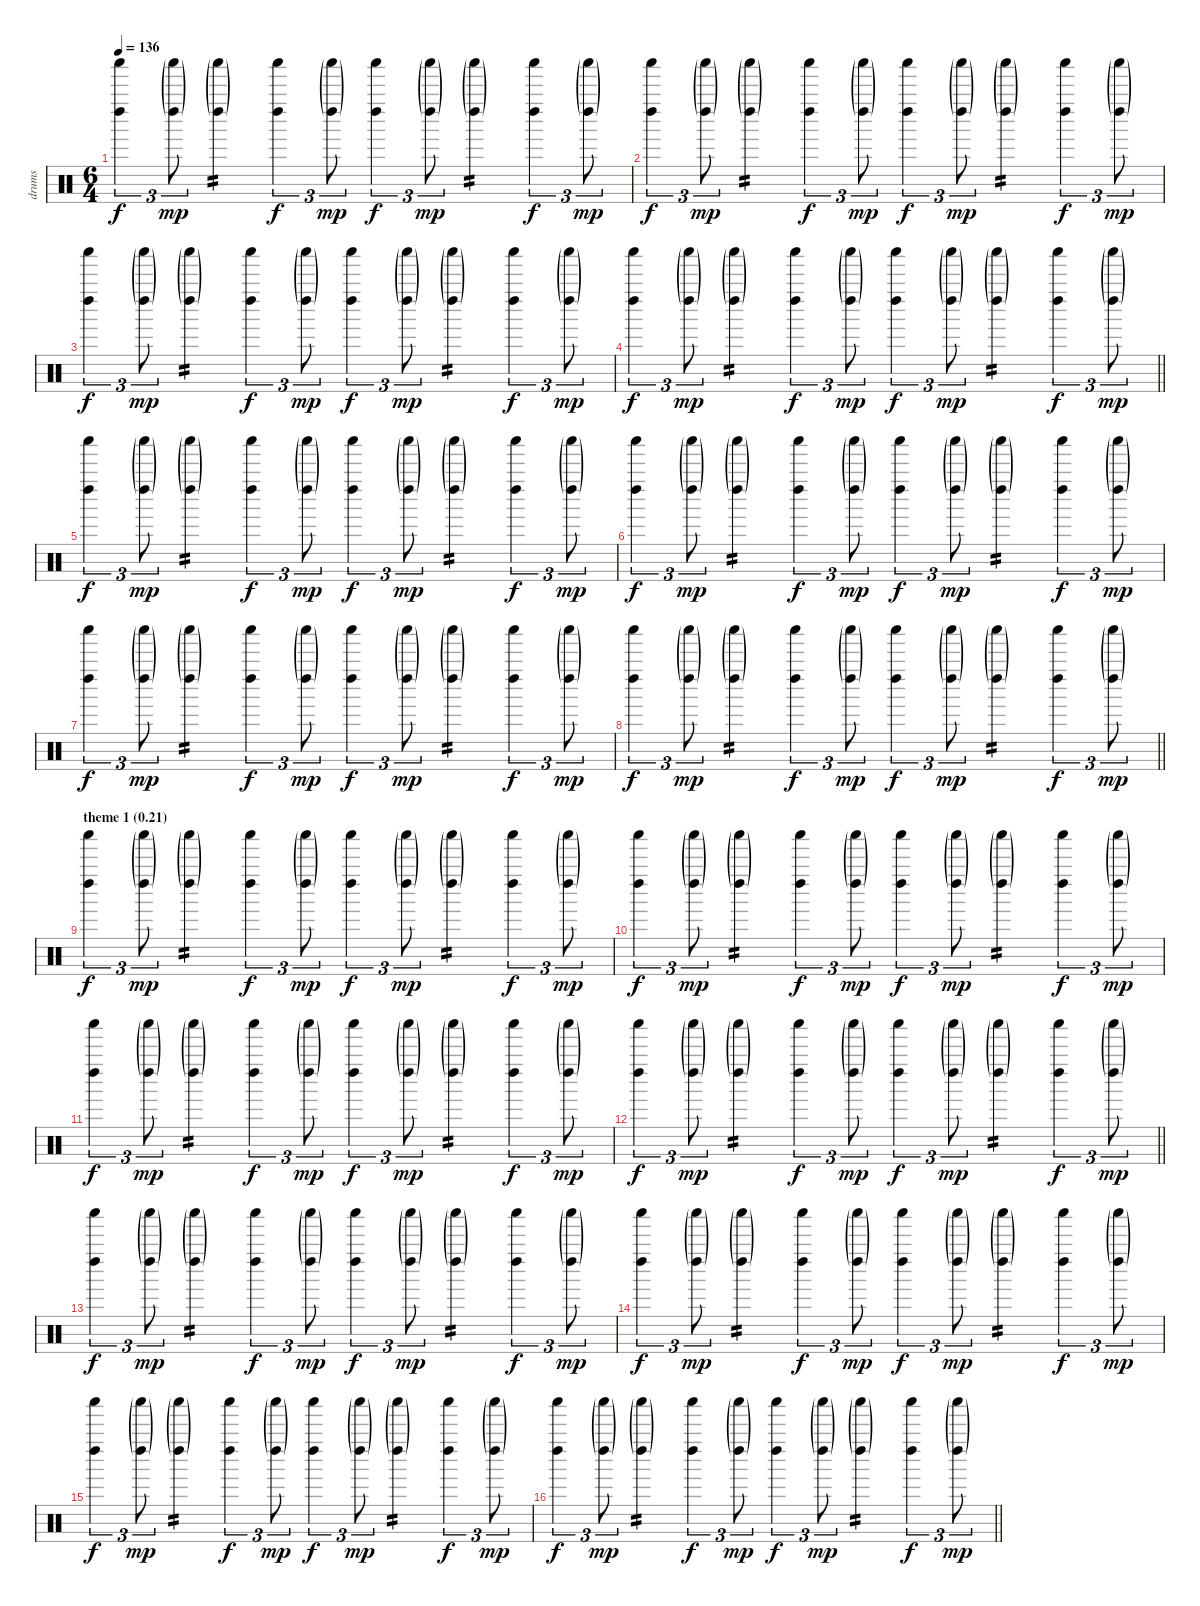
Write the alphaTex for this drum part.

\track ("drums" "drums") {instrument percussion}
\staff {score}
\articulation defaults
\ts (6 4)
\tempo 136
\clef neutral
\ks c
("Left Maraca (hit)" "Shaker (hit)").4{tu (3 2) dy f} ("Left Maraca (hit)"{g} "Shaker (hit)"{g}).8{tu (3 2) dy mp} ("Left Maraca (hit)"{g} "Shaker (hit)"{g}).4{tp 2} ("Left Maraca (hit)" "Shaker (hit)").4{tu (3 2) dy f} ("Left Maraca (hit)"{g} "Shaker (hit)"{g}).8{tu (3 2) dy mp} ("Left Maraca (hit)" "Shaker (hit)").4{tu (3 2) dy f} ("Left Maraca (hit)"{g} "Shaker (hit)"{g}).8{tu (3 2) dy mp} ("Left Maraca (hit)"{g} "Shaker (hit)"{g}).4{tp 2} ("Left Maraca (hit)" "Shaker (hit)").4{tu (3 2) dy f} ("Left Maraca (hit)"{g} "Shaker (hit)"{g}).8{tu (3 2) dy mp} |
("Left Maraca (hit)" "Shaker (hit)").4{tu (3 2) dy f} ("Left Maraca (hit)"{g} "Shaker (hit)"{g}).8{tu (3 2) dy mp} ("Left Maraca (hit)"{g} "Shaker (hit)"{g}).4{tp 2} ("Left Maraca (hit)" "Shaker (hit)").4{tu (3 2) dy f} ("Left Maraca (hit)"{g} "Shaker (hit)"{g}).8{tu (3 2) dy mp} ("Left Maraca (hit)" "Shaker (hit)").4{tu (3 2) dy f} ("Left Maraca (hit)"{g} "Shaker (hit)"{g}).8{tu (3 2) dy mp} ("Left Maraca (hit)"{g} "Shaker (hit)"{g}).4{tp 2} ("Left Maraca (hit)" "Shaker (hit)").4{tu (3 2) dy f} ("Left Maraca (hit)"{g} "Shaker (hit)"{g}).8{tu (3 2) dy mp} |
("Left Maraca (hit)" "Shaker (hit)").4{tu (3 2) dy f} ("Left Maraca (hit)"{g} "Shaker (hit)"{g}).8{tu (3 2) dy mp} ("Left Maraca (hit)"{g} "Shaker (hit)"{g}).4{tp 2} ("Left Maraca (hit)" "Shaker (hit)").4{tu (3 2) dy f} ("Left Maraca (hit)"{g} "Shaker (hit)"{g}).8{tu (3 2) dy mp} ("Left Maraca (hit)" "Shaker (hit)").4{tu (3 2) dy f} ("Left Maraca (hit)"{g} "Shaker (hit)"{g}).8{tu (3 2) dy mp} ("Left Maraca (hit)"{g} "Shaker (hit)"{g}).4{tp 2} ("Left Maraca (hit)" "Shaker (hit)").4{tu (3 2) dy f} ("Left Maraca (hit)"{g} "Shaker (hit)"{g}).8{tu (3 2) dy mp} |
\barLineRight lightlight
("Left Maraca (hit)" "Shaker (hit)").4{tu (3 2) dy f} ("Left Maraca (hit)"{g} "Shaker (hit)"{g}).8{tu (3 2) dy mp} ("Left Maraca (hit)"{g} "Shaker (hit)"{g}).4{tp 2} ("Left Maraca (hit)" "Shaker (hit)").4{tu (3 2) dy f} ("Left Maraca (hit)"{g} "Shaker (hit)"{g}).8{tu (3 2) dy mp} ("Left Maraca (hit)" "Shaker (hit)").4{tu (3 2) dy f} ("Left Maraca (hit)"{g} "Shaker (hit)"{g}).8{tu (3 2) dy mp} ("Left Maraca (hit)"{g} "Shaker (hit)"{g}).4{tp 2} ("Left Maraca (hit)" "Shaker (hit)").4{tu (3 2) dy f} ("Left Maraca (hit)"{g} "Shaker (hit)"{g}).8{tu (3 2) dy mp} |
("Left Maraca (hit)" "Shaker (hit)").4{tu (3 2) dy f} ("Left Maraca (hit)"{g} "Shaker (hit)"{g}).8{tu (3 2) dy mp} ("Left Maraca (hit)"{g} "Shaker (hit)"{g}).4{tp 2} ("Left Maraca (hit)" "Shaker (hit)").4{tu (3 2) dy f} ("Left Maraca (hit)"{g} "Shaker (hit)"{g}).8{tu (3 2) dy mp} ("Left Maraca (hit)" "Shaker (hit)").4{tu (3 2) dy f} ("Left Maraca (hit)"{g} "Shaker (hit)"{g}).8{tu (3 2) dy mp} ("Left Maraca (hit)"{g} "Shaker (hit)"{g}).4{tp 2} ("Left Maraca (hit)" "Shaker (hit)").4{tu (3 2) dy f} ("Left Maraca (hit)"{g} "Shaker (hit)"{g}).8{tu (3 2) dy mp} |
("Left Maraca (hit)" "Shaker (hit)").4{tu (3 2) dy f} ("Left Maraca (hit)"{g} "Shaker (hit)"{g}).8{tu (3 2) dy mp} ("Left Maraca (hit)"{g} "Shaker (hit)"{g}).4{tp 2} ("Left Maraca (hit)" "Shaker (hit)").4{tu (3 2) dy f} ("Left Maraca (hit)"{g} "Shaker (hit)"{g}).8{tu (3 2) dy mp} ("Left Maraca (hit)" "Shaker (hit)").4{tu (3 2) dy f} ("Left Maraca (hit)"{g} "Shaker (hit)"{g}).8{tu (3 2) dy mp} ("Left Maraca (hit)"{g} "Shaker (hit)"{g}).4{tp 2} ("Left Maraca (hit)" "Shaker (hit)").4{tu (3 2) dy f} ("Left Maraca (hit)"{g} "Shaker (hit)"{g}).8{tu (3 2) dy mp} |
("Left Maraca (hit)" "Shaker (hit)").4{tu (3 2) dy f} ("Left Maraca (hit)"{g} "Shaker (hit)"{g}).8{tu (3 2) dy mp} ("Left Maraca (hit)"{g} "Shaker (hit)"{g}).4{tp 2} ("Left Maraca (hit)" "Shaker (hit)").4{tu (3 2) dy f} ("Left Maraca (hit)"{g} "Shaker (hit)"{g}).8{tu (3 2) dy mp} ("Left Maraca (hit)" "Shaker (hit)").4{tu (3 2) dy f} ("Left Maraca (hit)"{g} "Shaker (hit)"{g}).8{tu (3 2) dy mp} ("Left Maraca (hit)"{g} "Shaker (hit)"{g}).4{tp 2} ("Left Maraca (hit)" "Shaker (hit)").4{tu (3 2) dy f} ("Left Maraca (hit)"{g} "Shaker (hit)"{g}).8{tu (3 2) dy mp} |
\barLineRight lightlight
("Left Maraca (hit)" "Shaker (hit)").4{tu (3 2) dy f} ("Left Maraca (hit)"{g} "Shaker (hit)"{g}).8{tu (3 2) dy mp} ("Left Maraca (hit)"{g} "Shaker (hit)"{g}).4{tp 2} ("Left Maraca (hit)" "Shaker (hit)").4{tu (3 2) dy f} ("Left Maraca (hit)"{g} "Shaker (hit)"{g}).8{tu (3 2) dy mp} ("Left Maraca (hit)" "Shaker (hit)").4{tu (3 2) dy f} ("Left Maraca (hit)"{g} "Shaker (hit)"{g}).8{tu (3 2) dy mp} ("Left Maraca (hit)"{g} "Shaker (hit)"{g}).4{tp 2} ("Left Maraca (hit)" "Shaker (hit)").4{tu (3 2) dy f} ("Left Maraca (hit)"{g} "Shaker (hit)"{g}).8{tu (3 2) dy mp} |
\section ("" "theme 1 (0.21)")
("Left Maraca (hit)" "Shaker (hit)").4{tu (3 2) dy f} ("Left Maraca (hit)"{g} "Shaker (hit)"{g}).8{tu (3 2) dy mp} ("Left Maraca (hit)"{g} "Shaker (hit)"{g}).4{tp 2} ("Left Maraca (hit)" "Shaker (hit)").4{tu (3 2) dy f} ("Left Maraca (hit)"{g} "Shaker (hit)"{g}).8{tu (3 2) dy mp} ("Left Maraca (hit)" "Shaker (hit)").4{tu (3 2) dy f} ("Left Maraca (hit)"{g} "Shaker (hit)"{g}).8{tu (3 2) dy mp} ("Left Maraca (hit)"{g} "Shaker (hit)"{g}).4{tp 2} ("Left Maraca (hit)" "Shaker (hit)").4{tu (3 2) dy f} ("Left Maraca (hit)"{g} "Shaker (hit)"{g}).8{tu (3 2) dy mp} |
("Left Maraca (hit)" "Shaker (hit)").4{tu (3 2) dy f} ("Left Maraca (hit)"{g} "Shaker (hit)"{g}).8{tu (3 2) dy mp} ("Left Maraca (hit)"{g} "Shaker (hit)"{g}).4{tp 2} ("Left Maraca (hit)" "Shaker (hit)").4{tu (3 2) dy f} ("Left Maraca (hit)"{g} "Shaker (hit)"{g}).8{tu (3 2) dy mp} ("Left Maraca (hit)" "Shaker (hit)").4{tu (3 2) dy f} ("Left Maraca (hit)"{g} "Shaker (hit)"{g}).8{tu (3 2) dy mp} ("Left Maraca (hit)"{g} "Shaker (hit)"{g}).4{tp 2} ("Left Maraca (hit)" "Shaker (hit)").4{tu (3 2) dy f} ("Left Maraca (hit)"{g} "Shaker (hit)"{g}).8{tu (3 2) dy mp} |
("Left Maraca (hit)" "Shaker (hit)").4{tu (3 2) dy f} ("Left Maraca (hit)"{g} "Shaker (hit)"{g}).8{tu (3 2) dy mp} ("Left Maraca (hit)"{g} "Shaker (hit)"{g}).4{tp 2} ("Left Maraca (hit)" "Shaker (hit)").4{tu (3 2) dy f} ("Left Maraca (hit)"{g} "Shaker (hit)"{g}).8{tu (3 2) dy mp} ("Left Maraca (hit)" "Shaker (hit)").4{tu (3 2) dy f} ("Left Maraca (hit)"{g} "Shaker (hit)"{g}).8{tu (3 2) dy mp} ("Left Maraca (hit)"{g} "Shaker (hit)"{g}).4{tp 2} ("Left Maraca (hit)" "Shaker (hit)").4{tu (3 2) dy f} ("Left Maraca (hit)"{g} "Shaker (hit)"{g}).8{tu (3 2) dy mp} |
\barLineRight lightlight
("Left Maraca (hit)" "Shaker (hit)").4{tu (3 2) dy f} ("Left Maraca (hit)"{g} "Shaker (hit)"{g}).8{tu (3 2) dy mp} ("Left Maraca (hit)"{g} "Shaker (hit)"{g}).4{tp 2} ("Left Maraca (hit)" "Shaker (hit)").4{tu (3 2) dy f} ("Left Maraca (hit)"{g} "Shaker (hit)"{g}).8{tu (3 2) dy mp} ("Left Maraca (hit)" "Shaker (hit)").4{tu (3 2) dy f} ("Left Maraca (hit)"{g} "Shaker (hit)"{g}).8{tu (3 2) dy mp} ("Left Maraca (hit)"{g} "Shaker (hit)"{g}).4{tp 2} ("Left Maraca (hit)" "Shaker (hit)").4{tu (3 2) dy f} ("Left Maraca (hit)"{g} "Shaker (hit)"{g}).8{tu (3 2) dy mp} |
("Left Maraca (hit)" "Shaker (hit)").4{tu (3 2) dy f} ("Left Maraca (hit)"{g} "Shaker (hit)"{g}).8{tu (3 2) dy mp} ("Left Maraca (hit)"{g} "Shaker (hit)"{g}).4{tp 2} ("Left Maraca (hit)" "Shaker (hit)").4{tu (3 2) dy f} ("Left Maraca (hit)"{g} "Shaker (hit)"{g}).8{tu (3 2) dy mp} ("Left Maraca (hit)" "Shaker (hit)").4{tu (3 2) dy f} ("Left Maraca (hit)"{g} "Shaker (hit)"{g}).8{tu (3 2) dy mp} ("Left Maraca (hit)"{g} "Shaker (hit)"{g}).4{tp 2} ("Left Maraca (hit)" "Shaker (hit)").4{tu (3 2) dy f} ("Left Maraca (hit)"{g} "Shaker (hit)"{g}).8{tu (3 2) dy mp} |
("Left Maraca (hit)" "Shaker (hit)").4{tu (3 2) dy f} ("Left Maraca (hit)"{g} "Shaker (hit)"{g}).8{tu (3 2) dy mp} ("Left Maraca (hit)"{g} "Shaker (hit)"{g}).4{tp 2} ("Left Maraca (hit)" "Shaker (hit)").4{tu (3 2) dy f} ("Left Maraca (hit)"{g} "Shaker (hit)"{g}).8{tu (3 2) dy mp} ("Left Maraca (hit)" "Shaker (hit)").4{tu (3 2) dy f} ("Left Maraca (hit)"{g} "Shaker (hit)"{g}).8{tu (3 2) dy mp} ("Left Maraca (hit)"{g} "Shaker (hit)"{g}).4{tp 2} ("Left Maraca (hit)" "Shaker (hit)").4{tu (3 2) dy f} ("Left Maraca (hit)"{g} "Shaker (hit)"{g}).8{tu (3 2) dy mp} |
("Left Maraca (hit)" "Shaker (hit)").4{tu (3 2) dy f} ("Left Maraca (hit)"{g} "Shaker (hit)"{g}).8{tu (3 2) dy mp} ("Left Maraca (hit)"{g} "Shaker (hit)"{g}).4{tp 2} ("Left Maraca (hit)" "Shaker (hit)").4{tu (3 2) dy f} ("Left Maraca (hit)"{g} "Shaker (hit)"{g}).8{tu (3 2) dy mp} ("Left Maraca (hit)" "Shaker (hit)").4{tu (3 2) dy f} ("Left Maraca (hit)"{g} "Shaker (hit)"{g}).8{tu (3 2) dy mp} ("Left Maraca (hit)"{g} "Shaker (hit)"{g}).4{tp 2} ("Left Maraca (hit)" "Shaker (hit)").4{tu (3 2) dy f} ("Left Maraca (hit)"{g} "Shaker (hit)"{g}).8{tu (3 2) dy mp} |
\barLineRight lightlight
("Left Maraca (hit)" "Shaker (hit)").4{tu (3 2) dy f} ("Left Maraca (hit)"{g} "Shaker (hit)"{g}).8{tu (3 2) dy mp} ("Left Maraca (hit)"{g} "Shaker (hit)"{g}).4{tp 2} ("Left Maraca (hit)" "Shaker (hit)").4{tu (3 2) dy f} ("Left Maraca (hit)"{g} "Shaker (hit)"{g}).8{tu (3 2) dy mp} ("Left Maraca (hit)" "Shaker (hit)").4{tu (3 2) dy f} ("Left Maraca (hit)"{g} "Shaker (hit)"{g}).8{tu (3 2) dy mp} ("Left Maraca (hit)"{g} "Shaker (hit)"{g}).4{tp 2} ("Left Maraca (hit)" "Shaker (hit)").4{tu (3 2) dy f} ("Left Maraca (hit)"{g} "Shaker (hit)"{g}).8{tu (3 2) dy mp}
